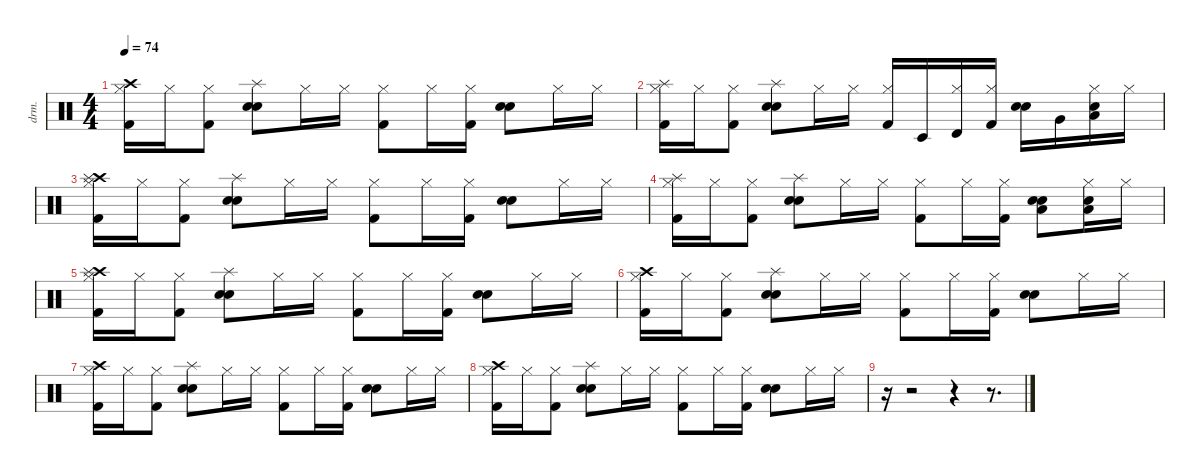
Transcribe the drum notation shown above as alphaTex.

\defaultSystemsLayout 4
\hideDynamics
\bracketExtendMode nobrackets
\otherSystemsTrackNameOrientation horizontal
\track ("Percussion" "drm.") {instrument percussion}
\staff {score}
\articulation defaults
\ts (4 4)
\tempo 74
\clef neutral
\ks c
("Hi-Hat (closed)" "Crash high (hit)" "Kick (hit) 2").16{dy f} "Hi-Hat (closed)".16 ("Hi-Hat (closed)" "Kick (hit) 2").8 ("Snare (hit) 2" "Snare (hit) 2" "Splash (hit)").8 "Hi-Hat (closed)".16 "Hi-Hat (closed)".16 ("Hi-Hat (closed)" "Kick (hit) 2").8 "Hi-Hat (closed)".16 ("Hi-Hat (closed)" "Kick (hit) 2").16 ("Snare (hit) 2" "Snare (hit) 2").8 "Hi-Hat (closed)".16 "Hi-Hat (closed)".16 |
("Hi-Hat (closed)" "Splash (hit)" "Kick (hit) 2").16 "Hi-Hat (closed)".16 ("Hi-Hat (closed)" "Kick (hit) 2").8 ("Snare (hit) 2" "Snare (hit) 2" "Splash (hit)").8 "Hi-Hat (closed)".16 "Hi-Hat (closed)".16 ("Hi-Hat (closed)" "Kick (hit) 2").16 "Timbale low (hit)".16{dy fff} ("Hi-Hat (closed)" "Timbale high (hit)").16{dy f} ("Hi-Hat (closed)" "Kick (hit) 2").16 ("Snare (hit) 2" "Snare (hit) 2").16 "Very Low Tom (hit)".16{dy fff} ("Hi-Hat (closed)" "Low Floor Tom (hit)" "Snare (hit) 2").16{dy f} "Hi-Hat (closed)".16 |
("Hi-Hat (closed)" "Crash high (hit)" "Kick (hit) 2" "Splash (hit)").16 "Hi-Hat (closed)".16 ("Hi-Hat (closed)" "Kick (hit) 2").8 ("Snare (hit) 2" "Snare (hit) 2" "Splash (hit)").8 "Hi-Hat (closed)".16 "Hi-Hat (closed)".16 ("Hi-Hat (closed)" "Kick (hit) 2").8 "Hi-Hat (closed)".16 ("Hi-Hat (closed)" "Kick (hit) 2").16 ("Snare (hit) 2" "Snare (hit) 2").8 "Hi-Hat (closed)".16 "Hi-Hat (closed)".16 |
("Hi-Hat (closed)" "Splash (hit)" "Kick (hit) 2").16 "Hi-Hat (closed)".16 ("Hi-Hat (closed)" "Kick (hit) 2").8 ("Snare (hit) 2" "Snare (hit) 2" "Splash (hit)").8 "Hi-Hat (closed)".16 "Hi-Hat (closed)".16 ("Hi-Hat (closed)" "Kick (hit) 2").8 "Hi-Hat (closed)".16 ("Hi-Hat (closed)" "Kick (hit) 2").16 ("Snare (hit) 2" "Snare (hit) 2" "Low Floor Tom (hit)").8 ("Hi-Hat (closed)" "Snare (hit) 2" "Low Floor Tom (hit)").16 "Hi-Hat (closed)".16 |
("Hi-Hat (closed)" "Crash high (hit)" "Kick (hit) 2" "Splash (hit)").16 "Hi-Hat (closed)".16 ("Hi-Hat (closed)" "Kick (hit) 2").8 ("Snare (hit) 2" "Snare (hit) 2" "Splash (hit)").8 "Hi-Hat (closed)".16 "Hi-Hat (closed)".16 ("Hi-Hat (closed)" "Kick (hit) 2").8 "Hi-Hat (closed)".16 ("Hi-Hat (closed)" "Kick (hit) 2").16 ("Snare (hit) 2" "Snare (hit) 2").8 "Hi-Hat (closed)".16 "Hi-Hat (closed)".16 |
("Hi-Hat (closed)" "Crash high (hit)" "Kick (hit) 2").16 "Hi-Hat (closed)".16 ("Hi-Hat (closed)" "Kick (hit) 2").8 ("Snare (hit) 2" "Snare (hit) 2" "Splash (hit)").8 "Hi-Hat (closed)".16 "Hi-Hat (closed)".16 ("Hi-Hat (closed)" "Kick (hit) 2").8 "Hi-Hat (closed)".16 ("Hi-Hat (closed)" "Kick (hit) 2").16 ("Snare (hit) 2" "Snare (hit) 2").8 "Hi-Hat (closed)".16 "Hi-Hat (closed)".16 |
("Hi-Hat (closed)" "Crash high (hit)" "Kick (hit) 2").16 "Hi-Hat (closed)".16 ("Hi-Hat (closed)" "Kick (hit) 2").8 ("Snare (hit) 2" "Snare (hit) 2" "Splash (hit)").8 "Hi-Hat (closed)".16 "Hi-Hat (closed)".16 ("Hi-Hat (closed)" "Kick (hit) 2").8 "Hi-Hat (closed)".16 ("Hi-Hat (closed)" "Kick (hit) 2").16 ("Snare (hit) 2" "Snare (hit) 2").8 "Hi-Hat (closed)".16 "Hi-Hat (closed)".16 |
("Hi-Hat (closed)" "Crash high (hit)" "Kick (hit) 2").16 "Hi-Hat (closed)".16 ("Hi-Hat (closed)" "Kick (hit) 2").8 ("Snare (hit) 2" "Snare (hit) 2" "Splash (hit)").8 "Hi-Hat (closed)".16 "Hi-Hat (closed)".16 ("Hi-Hat (closed)" "Kick (hit) 2").8 "Hi-Hat (closed)".16 ("Hi-Hat (closed)" "Kick (hit) 2").16 ("Snare (hit) 2" "Snare (hit) 2").8 "Hi-Hat (closed)".16 "Hi-Hat (closed)".16 |
r.16 r.2 r.4 r.8{d}
